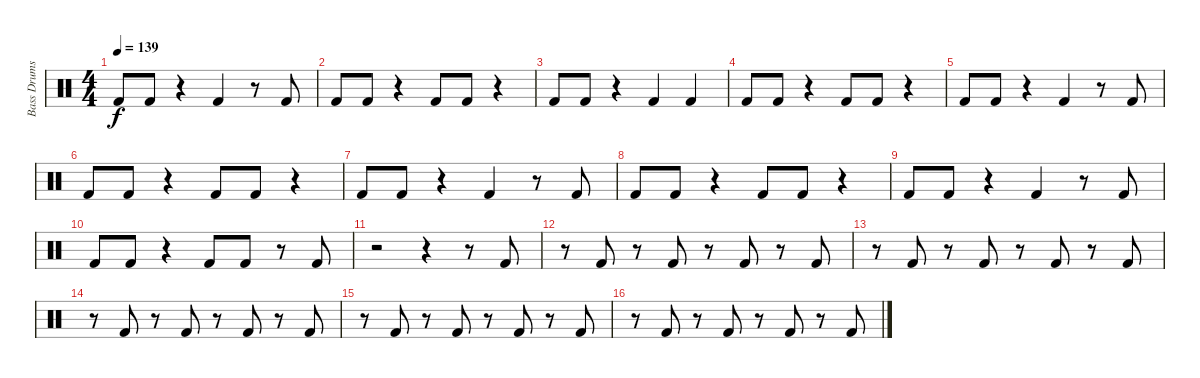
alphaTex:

\track ("Bass Drums" "Bass Drums") {instrument percussion}
\staff {score}
\articulation defaults
\ts (4 4)
\tempo 139
\clef neutral
\ks c "Kick (hit) 2".8{dy f} "Kick (hit) 2".8
r.4 "Kick (hit) 2".4 r.8 "Kick (hit) 2".8 |
"Kick (hit) 2".8 "Kick (hit) 2".8 r.4 "Kick (hit) 2".8 "Kick (hit) 2".8 r.4 |
"Kick (hit) 2".8 "Kick (hit) 2".8 r.4 "Kick (hit) 2".4 "Kick (hit) 2".4 |
"Kick (hit) 2".8 "Kick (hit) 2".8 r.4 "Kick (hit) 2".8 "Kick (hit) 2".8 r.4 |
"Kick (hit) 2".8 "Kick (hit) 2".8 r.4 "Kick (hit) 2".4 r.8 "Kick (hit) 2".8 |
"Kick (hit) 2".8 "Kick (hit) 2".8 r.4 "Kick (hit) 2".8 "Kick (hit) 2".8 r.4 |
"Kick (hit) 2".8 "Kick (hit) 2".8 r.4 "Kick (hit) 2".4 r.8 "Kick (hit) 2".8 |
"Kick (hit) 2".8 "Kick (hit) 2".8 r.4 "Kick (hit) 2".8 "Kick (hit) 2".8 r.4 |
"Kick (hit) 2".8 "Kick (hit) 2".8 r.4 "Kick (hit) 2".4 r.8 "Kick (hit) 2".8 |
"Kick (hit) 2".8 "Kick (hit) 2".8 r.4 "Kick (hit) 2".8 "Kick (hit) 2".8 r.8 "Kick (hit) 2".8 |
r.2 r.4 r.8 "Kick (hit) 2".8 |
r.8 "Kick (hit) 2".8 r.8 "Kick (hit) 2".8 r.8 "Kick (hit) 2".8 r.8 "Kick (hit) 2".8 |
r.8 "Kick (hit) 2".8 r.8 "Kick (hit) 2".8 r.8 "Kick (hit) 2".8 r.8 "Kick (hit) 2".8 |
r.8 "Kick (hit) 2".8 r.8 "Kick (hit) 2".8 r.8 "Kick (hit) 2".8 r.8 "Kick (hit) 2".8 |
r.8 "Kick (hit) 2".8 r.8 "Kick (hit) 2".8 r.8 "Kick (hit) 2".8 r.8 "Kick (hit) 2".8 |
r.8 "Kick (hit) 2".8 r.8 "Kick (hit) 2".8 r.8 "Kick (hit) 2".8 r.8 "Kick (hit) 2".8
